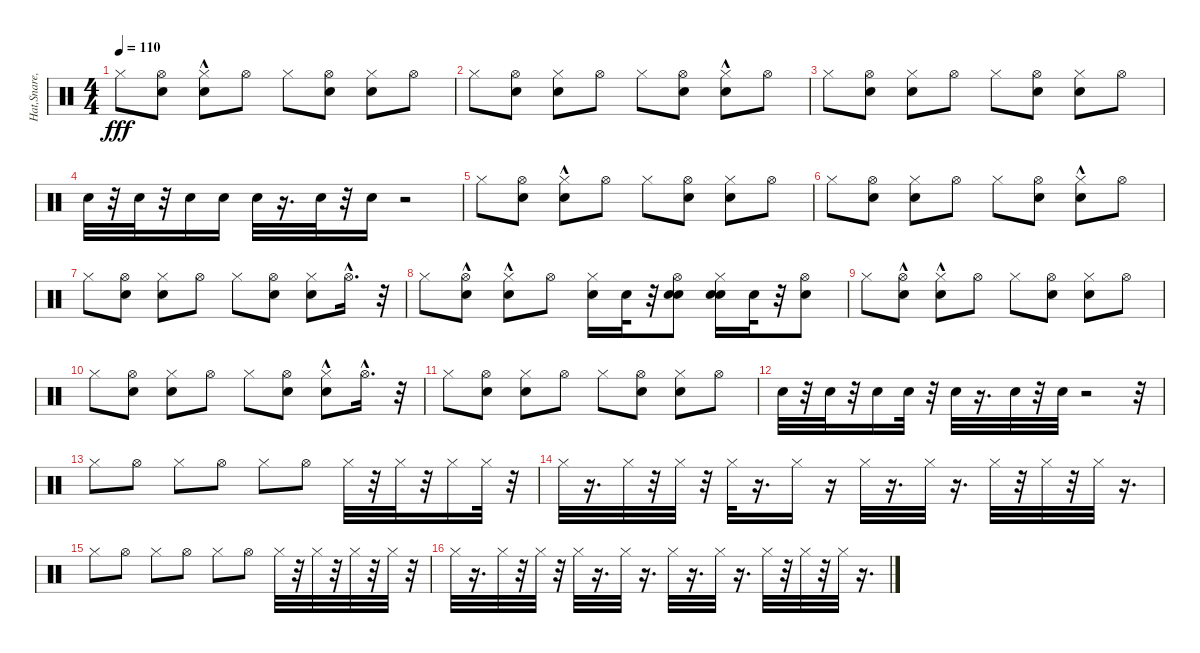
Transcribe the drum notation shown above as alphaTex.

\track ("Hat,Snare,Clap" "Hat,Snare,") {instrument percussion}
\staff {score}
\articulation defaults
\ts (4 4)
\tempo 110
\clef neutral
\ks c "Hi-Hat (closed)".8{dy fff}
("Hi-Hat (open)" "Electric Snare (hit)").8 ("Hi-Hat (closed)" "Hand Clap (hit)"{hac}).8 "Hi-Hat (open)".8 "Hi-Hat (closed)".8 ("Hi-Hat (open)" "Electric Snare (hit)").8 ("Hi-Hat (closed)" "Hand Clap (hit)").8 "Hi-Hat (open)".8 |
"Hi-Hat (closed)".8 ("Hi-Hat (open)" "Electric Snare (hit)").8 ("Hi-Hat (closed)" "Hand Clap (hit)").8 "Hi-Hat (open)".8 "Hi-Hat (closed)".8 ("Hi-Hat (open)" "Electric Snare (hit)").8 ("Hi-Hat (closed)" "Hand Clap (hit)"{hac}).8 "Hi-Hat (open)".8 |
"Hi-Hat (closed)".8 ("Hi-Hat (open)" "Electric Snare (hit)").8 ("Hi-Hat (closed)" "Hand Clap (hit)").8 "Hi-Hat (open)".8 "Hi-Hat (closed)".8 ("Hi-Hat (open)" "Electric Snare (hit)").8 ("Hi-Hat (closed)" "Hand Clap (hit)").8 "Hi-Hat (open)".8 |
"Electric Snare (hit)".32 r.32 "Electric Snare (hit)".32 r.32 "Electric Snare (hit)".16 "Electric Snare (hit)".16 "Electric Snare (hit)".32 r.16{d} "Electric Snare (hit)".32 r.32 "Electric Snare (hit)".16 r.2 |
"Hi-Hat (closed)".8 ("Hi-Hat (open)" "Electric Snare (hit)").8 ("Hi-Hat (closed)" "Hand Clap (hit)"{hac}).8 "Hi-Hat (open)".8 "Hi-Hat (closed)".8 ("Hi-Hat (open)" "Electric Snare (hit)").8 ("Hi-Hat (closed)" "Hand Clap (hit)").8 "Hi-Hat (open)".8 |
"Hi-Hat (closed)".8 ("Hi-Hat (open)" "Electric Snare (hit)").8 ("Hi-Hat (closed)" "Hand Clap (hit)").8 "Hi-Hat (open)".8 "Hi-Hat (closed)".8 ("Hi-Hat (open)" "Electric Snare (hit)").8 ("Hi-Hat (closed)" "Hand Clap (hit)"{hac}).8 "Hi-Hat (open)".8 |
"Hi-Hat (closed)".8 ("Hi-Hat (open)" "Electric Snare (hit)").8 ("Hi-Hat (closed)" "Hand Clap (hit)").8 "Hi-Hat (open)".8 "Hi-Hat (closed)".8 ("Hi-Hat (open)" "Electric Snare (hit)").8 ("Hi-Hat (closed)" "Hand Clap (hit)").8 "Hi-Hat (open)"{hac}.16{d} r.32 |
"Hi-Hat (closed)".8 ("Hi-Hat (open)" "Electric Snare (hit)"{hac}).8 ("Hi-Hat (closed)" "Hand Clap (hit)"{hac}).8 "Hi-Hat (open)".8 ("Hi-Hat (closed)" "Electric Snare (hit)").16 "Electric Snare (hit)".32 r.32 ("Hi-Hat (open)" "Electric Snare (hit)" "Electric Snare (hit)").8 ("Hi-Hat (closed)" "Electric Snare (hit)" "Hand Clap (hit)").16 "Electric Snare (hit)".32 r.32 ("Hi-Hat (open)" "Electric Snare (hit)").8 |
"Hi-Hat (closed)".8 ("Hi-Hat (open)" "Electric Snare (hit)"{hac}).8 ("Hi-Hat (closed)" "Hand Clap (hit)"{hac}).8 "Hi-Hat (open)".8 "Hi-Hat (closed)".8 ("Hi-Hat (open)" "Electric Snare (hit)").8 ("Hi-Hat (closed)" "Hand Clap (hit)").8 "Hi-Hat (open)".8 |
"Hi-Hat (closed)".8 ("Hi-Hat (open)" "Electric Snare (hit)").8 ("Hi-Hat (closed)" "Hand Clap (hit)").8 "Hi-Hat (open)".8 "Hi-Hat (closed)".8 ("Hi-Hat (open)" "Electric Snare (hit)").8 ("Hi-Hat (closed)" "Hand Clap (hit)"{hac}).8 "Hi-Hat (open)"{hac}.16{d} r.32 |
"Hi-Hat (closed)".8 ("Hi-Hat (open)" "Electric Snare (hit)").8 ("Hi-Hat (closed)" "Hand Clap (hit)").8 "Hi-Hat (open)".8 "Hi-Hat (closed)".8 ("Hi-Hat (open)" "Electric Snare (hit)").8 ("Hi-Hat (closed)" "Hand Clap (hit)").8 "Hi-Hat (open)".8 |
"Electric Snare (hit)".32 r.32 "Electric Snare (hit)".32 r.32 "Electric Snare (hit)".16 "Electric Snare (hit)".32 r.32 "Electric Snare (hit)".32 r.16{d} "Electric Snare (hit)".32 r.32 "Electric Snare (hit)".32 r.2 r.32 |
"Hi-Hat (closed)".8 "Hi-Hat (open)".8 "Hi-Hat (closed)".8 "Hi-Hat (open)".8 "Hi-Hat (closed)".8 "Hi-Hat (open)".8 "Hi-Hat (closed)".32 r.32 "Hi-Hat (closed)".32 r.32 "Hi-Hat (closed)".16 "Hi-Hat (closed)".32 r.32 |
"Hi-Hat (closed)".32 r.16{d} "Hi-Hat (closed)".32 r.32 "Hi-Hat (closed)".32 r.32 "Hi-Hat (closed)".32 r.16{d} "Hi-Hat (closed)".16 r.16 "Hi-Hat (closed)".32 r.16{d} "Hi-Hat (closed)".32 r.16{d} "Hi-Hat (closed)".32 r.32 "Hi-Hat (closed)".32 r.32 "Hi-Hat (closed)".32 r.16{d} |
"Hi-Hat (closed)".8 "Hi-Hat (open)".8 "Hi-Hat (closed)".8 "Hi-Hat (open)".8 "Hi-Hat (closed)".8 "Hi-Hat (open)".8 "Hi-Hat (closed)".32 r.32 "Hi-Hat (closed)".32 r.32 "Hi-Hat (closed)".32 r.32 "Hi-Hat (closed)".32 r.32 |
"Hi-Hat (closed)".32 r.16{d} "Hi-Hat (closed)".32 r.32 "Hi-Hat (closed)".32 r.32 "Hi-Hat (closed)".32 r.16{d} "Hi-Hat (closed)".32 r.16{d} "Hi-Hat (closed)".32 r.16{d} "Hi-Hat (closed)".32 r.16{d} "Hi-Hat (closed)".32 r.32 "Hi-Hat (closed)".32 r.32 "Hi-Hat (closed)".32 r.16{d}
